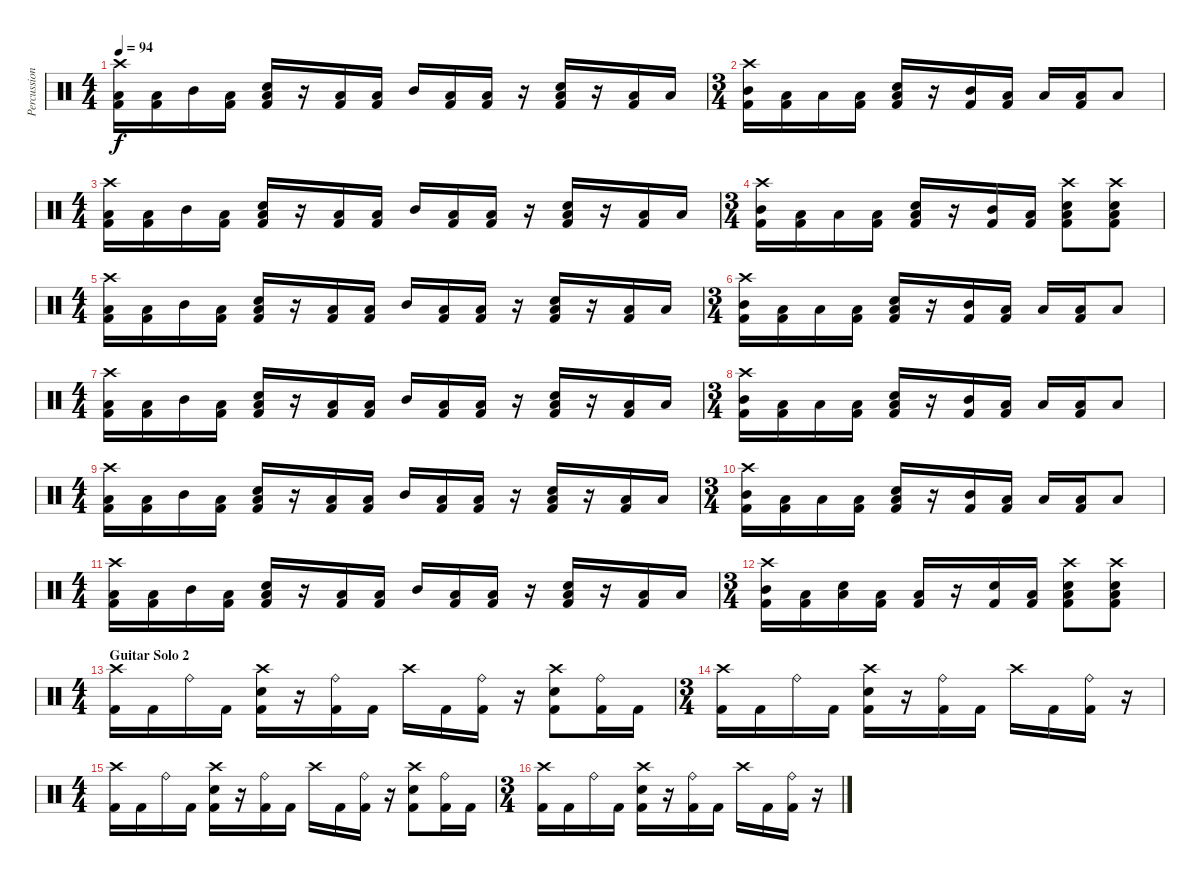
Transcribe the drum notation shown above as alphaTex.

\track ("Percussion" "Percussion") {instrument percussion}
\staff {score}
\articulation defaults
\ts (4 4)
\tempo 94
\clef neutral
\ks c
("Crash high (hit)" "Low Tom (hit)" "Kick (hit) 2").16{dy f} ("Low Floor Tom (hit)" "Kick (hit) 2").16 "Mid Tom (hit)".16 ("Low Tom (hit)" "Kick (hit) 2").16 ("Electric Snare (hit)" "Low Floor Tom (hit)" "Kick (hit) 2").16 r.16 ("Low Tom (hit)" "Kick (hit) 2").16 ("Low Floor Tom (hit)" "Kick (hit) 2").16 "Mid Tom (hit)".16 ("Low Tom (hit)" "Kick (hit) 2").16 ("Low Floor Tom (hit)" "Kick (hit) 2").16 r.16 ("Electric Snare (hit)" "Low Tom (hit)" "Kick (hit) 2").16 r.16 ("Low Tom (hit)" "Kick (hit) 2").16 "Low Floor Tom (hit)".16 |
\ts (3 4)
("Crash high (hit)" "Mid Tom (hit)" "Kick (hit) 2").16 ("Low Tom (hit)" "Kick (hit) 2").16 "Low Floor Tom (hit)".16 ("Low Tom (hit)" "Kick (hit) 2").16 ("Electric Snare (hit)" "Low Floor Tom (hit)" "Kick (hit) 2").16 r.16 ("Mid Tom (hit)" "Kick (hit) 2").16 ("Low Tom (hit)" "Kick (hit) 2").16 "Low Tom (hit)".16 ("Low Tom (hit)" "Kick (hit) 2").16 "Low Floor Tom (hit)".8 |
\ts (4 4)
("Crash high (hit)" "Low Tom (hit)" "Kick (hit) 2").16 ("Low Floor Tom (hit)" "Kick (hit) 2").16 "Mid Tom (hit)".16 ("Low Tom (hit)" "Kick (hit) 2").16 ("Electric Snare (hit)" "Low Floor Tom (hit)" "Kick (hit) 2").16 r.16 ("Low Tom (hit)" "Kick (hit) 2").16 ("Low Floor Tom (hit)" "Kick (hit) 2").16 "Mid Tom (hit)".16 ("Low Tom (hit)" "Kick (hit) 2").16 ("Low Floor Tom (hit)" "Kick (hit) 2").16 r.16 ("Electric Snare (hit)" "Low Tom (hit)" "Kick (hit) 2").16 r.16 ("Low Tom (hit)" "Kick (hit) 2").16 "Low Floor Tom (hit)".16 |
\ts (3 4)
("Crash high (hit)" "Mid Tom (hit)" "Kick (hit) 2").16 ("Low Tom (hit)" "Kick (hit) 2").16 "Low Floor Tom (hit)".16 ("Low Tom (hit)" "Kick (hit) 2").16 ("Electric Snare (hit)" "Low Floor Tom (hit)" "Kick (hit) 2").16 r.16 ("Mid Tom (hit)" "Kick (hit) 2").16 ("Low Tom (hit)" "Kick (hit) 2").16 ("Crash high (hit)" "Electric Snare (hit)" "Low Floor Tom (hit)" "Kick (hit) 2").8 ("Crash high (hit)" "Electric Snare (hit)" "Low Floor Tom (hit)" "Kick (hit) 2").8 |
\ts (4 4)
("Crash high (hit)" "Low Tom (hit)" "Kick (hit) 2").16 ("Low Floor Tom (hit)" "Kick (hit) 2").16 "Mid Tom (hit)".16 ("Low Tom (hit)" "Kick (hit) 2").16 ("Electric Snare (hit)" "Low Floor Tom (hit)" "Kick (hit) 2").16 r.16 ("Low Tom (hit)" "Kick (hit) 2").16 ("Low Floor Tom (hit)" "Kick (hit) 2").16 "Mid Tom (hit)".16 ("Low Tom (hit)" "Kick (hit) 2").16 ("Low Floor Tom (hit)" "Kick (hit) 2").16 r.16 ("Electric Snare (hit)" "Low Tom (hit)" "Kick (hit) 2").16 r.16 ("Low Tom (hit)" "Kick (hit) 2").16 "Low Floor Tom (hit)".16 |
\ts (3 4)
("Crash high (hit)" "Mid Tom (hit)" "Kick (hit) 2").16 ("Low Tom (hit)" "Kick (hit) 2").16 "Low Floor Tom (hit)".16 ("Low Tom (hit)" "Kick (hit) 2").16 ("Electric Snare (hit)" "Low Floor Tom (hit)" "Kick (hit) 2").16 r.16 ("Mid Tom (hit)" "Kick (hit) 2").16 ("Low Tom (hit)" "Kick (hit) 2").16 "Low Tom (hit)".16 ("Low Tom (hit)" "Kick (hit) 2").16 "Low Floor Tom (hit)".8 |
\ts (4 4)
("Crash high (hit)" "Low Tom (hit)" "Kick (hit) 2").16 ("Low Floor Tom (hit)" "Kick (hit) 2").16 "Mid Tom (hit)".16 ("Low Tom (hit)" "Kick (hit) 2").16 ("Electric Snare (hit)" "Low Floor Tom (hit)" "Kick (hit) 2").16 r.16 ("Low Tom (hit)" "Kick (hit) 2").16 ("Low Floor Tom (hit)" "Kick (hit) 2").16 "Mid Tom (hit)".16 ("Low Tom (hit)" "Kick (hit) 2").16 ("Low Floor Tom (hit)" "Kick (hit) 2").16 r.16 ("Electric Snare (hit)" "Low Tom (hit)" "Kick (hit) 2").16 r.16 ("Low Tom (hit)" "Kick (hit) 2").16 "Low Floor Tom (hit)".16 |
\ts (3 4)
("Crash high (hit)" "Mid Tom (hit)" "Kick (hit) 2").16 ("Low Tom (hit)" "Kick (hit) 2").16 "Low Floor Tom (hit)".16 ("Low Tom (hit)" "Kick (hit) 2").16 ("Electric Snare (hit)" "Low Floor Tom (hit)" "Kick (hit) 2").16 r.16 ("Mid Tom (hit)" "Kick (hit) 2").16 ("Low Tom (hit)" "Kick (hit) 2").16 "Low Tom (hit)".16 ("Low Tom (hit)" "Kick (hit) 2").16 "Low Floor Tom (hit)".8 |
\ts (4 4)
("Crash high (hit)" "Low Tom (hit)" "Kick (hit) 2").16 ("Low Floor Tom (hit)" "Kick (hit) 2").16 "Mid Tom (hit)".16 ("Low Tom (hit)" "Kick (hit) 2").16 ("Electric Snare (hit)" "Low Floor Tom (hit)" "Kick (hit) 2").16 r.16 ("Low Tom (hit)" "Kick (hit) 2").16 ("Low Floor Tom (hit)" "Kick (hit) 2").16 "Mid Tom (hit)".16 ("Low Tom (hit)" "Kick (hit) 2").16 ("Low Floor Tom (hit)" "Kick (hit) 2").16 r.16 ("Electric Snare (hit)" "Low Tom (hit)" "Kick (hit) 2").16 r.16 ("Low Tom (hit)" "Kick (hit) 2").16 "Low Floor Tom (hit)".16 |
\ts (3 4)
("Crash high (hit)" "Mid Tom (hit)" "Kick (hit) 2").16 ("Low Tom (hit)" "Kick (hit) 2").16 "Low Floor Tom (hit)".16 ("Low Tom (hit)" "Kick (hit) 2").16 ("Electric Snare (hit)" "Low Floor Tom (hit)" "Kick (hit) 2").16 r.16 ("Mid Tom (hit)" "Kick (hit) 2").16 ("Low Tom (hit)" "Kick (hit) 2").16 "Low Tom (hit)".16 ("Low Tom (hit)" "Kick (hit) 2").16 "Low Floor Tom (hit)".8 |
\ts (4 4)
("Crash high (hit)" "Low Tom (hit)" "Kick (hit) 2").16 ("Low Floor Tom (hit)" "Kick (hit) 2").16 "Mid Tom (hit)".16 ("Low Tom (hit)" "Kick (hit) 2").16 ("Electric Snare (hit)" "Low Floor Tom (hit)" "Kick (hit) 2").16 r.16 ("Low Tom (hit)" "Kick (hit) 2").16 ("Low Floor Tom (hit)" "Kick (hit) 2").16 "Mid Tom (hit)".16 ("Low Tom (hit)" "Kick (hit) 2").16 ("Low Floor Tom (hit)" "Kick (hit) 2").16 r.16 ("Electric Snare (hit)" "Low Tom (hit)" "Kick (hit) 2").16 r.16 ("Low Tom (hit)" "Kick (hit) 2").16 "Low Floor Tom (hit)".16 |
\ts (3 4)
("Crash high (hit)" "Mid Tom (hit)" "Kick (hit) 2").16 ("Low Tom (hit)" "Kick (hit) 2").16 ("Electric Snare (hit)" "Low Floor Tom (hit)").16 ("Low Tom (hit)" "Kick (hit) 2").16 ("Low Floor Tom (hit)" "Kick (hit) 2").16 r.16 ("Electric Snare (hit)" "Kick (hit) 2").16 ("Low Tom (hit)" "Kick (hit) 2").16 ("Crash high (hit)" "Electric Snare (hit)" "Low Floor Tom (hit)" "Kick (hit) 2").8 ("Crash high (hit)" "Electric Snare (hit)" "Low Floor Tom (hit)" "Kick (hit) 2").8 |
\ts (4 4)
\section ("" "Guitar Solo 2")
("Crash high (hit)" "Kick (hit) 2").16 "Kick (hit) 2".16 "Ride (bell)".16 "Kick (hit) 2".16 ("Crash high (hit)" "Electric Snare (hit)" "Kick (hit) 2").16 r.16 ("Ride (bell)" "Kick (hit) 2").16 "Kick (hit) 2".16 "Crash high (hit)".16 "Kick (hit) 2".16 ("Ride (bell)" "Kick (hit) 2").16 r.16 ("Crash high (hit)" "Electric Snare (hit)" "Kick (hit) 2").8 ("Ride (bell)" "Kick (hit) 2").16 "Kick (hit) 2".16 |
\ts (3 4)
("Crash high (hit)" "Kick (hit) 2").16 "Kick (hit) 2".16 "Ride (bell)".16 "Kick (hit) 2".16 ("Crash high (hit)" "Electric Snare (hit)" "Kick (hit) 2").16 r.16 ("Ride (bell)" "Kick (hit) 2").16 "Kick (hit) 2".16 "Crash high (hit)".16 "Kick (hit) 2".16 ("Ride (bell)" "Kick (hit) 2").16 r.16 |
\ts (4 4)
("Crash high (hit)" "Kick (hit) 2").16 "Kick (hit) 2".16 "Ride (bell)".16 "Kick (hit) 2".16 ("Crash high (hit)" "Electric Snare (hit)" "Kick (hit) 2").16 r.16 ("Ride (bell)" "Kick (hit) 2").16 "Kick (hit) 2".16 "Crash high (hit)".16 "Kick (hit) 2".16 ("Ride (bell)" "Kick (hit) 2").16 r.16 ("Crash high (hit)" "Electric Snare (hit)" "Kick (hit) 2").8 ("Ride (bell)" "Kick (hit) 2").16 "Kick (hit) 2".16 |
\ts (3 4)
("Crash high (hit)" "Kick (hit) 2").16 "Kick (hit) 2".16 "Ride (bell)".16 "Kick (hit) 2".16 ("Crash high (hit)" "Electric Snare (hit)" "Kick (hit) 2").16 r.16 ("Ride (bell)" "Kick (hit) 2").16 "Kick (hit) 2".16 "Crash high (hit)".16 "Kick (hit) 2".16 ("Ride (bell)" "Kick (hit) 2").16 r.16
